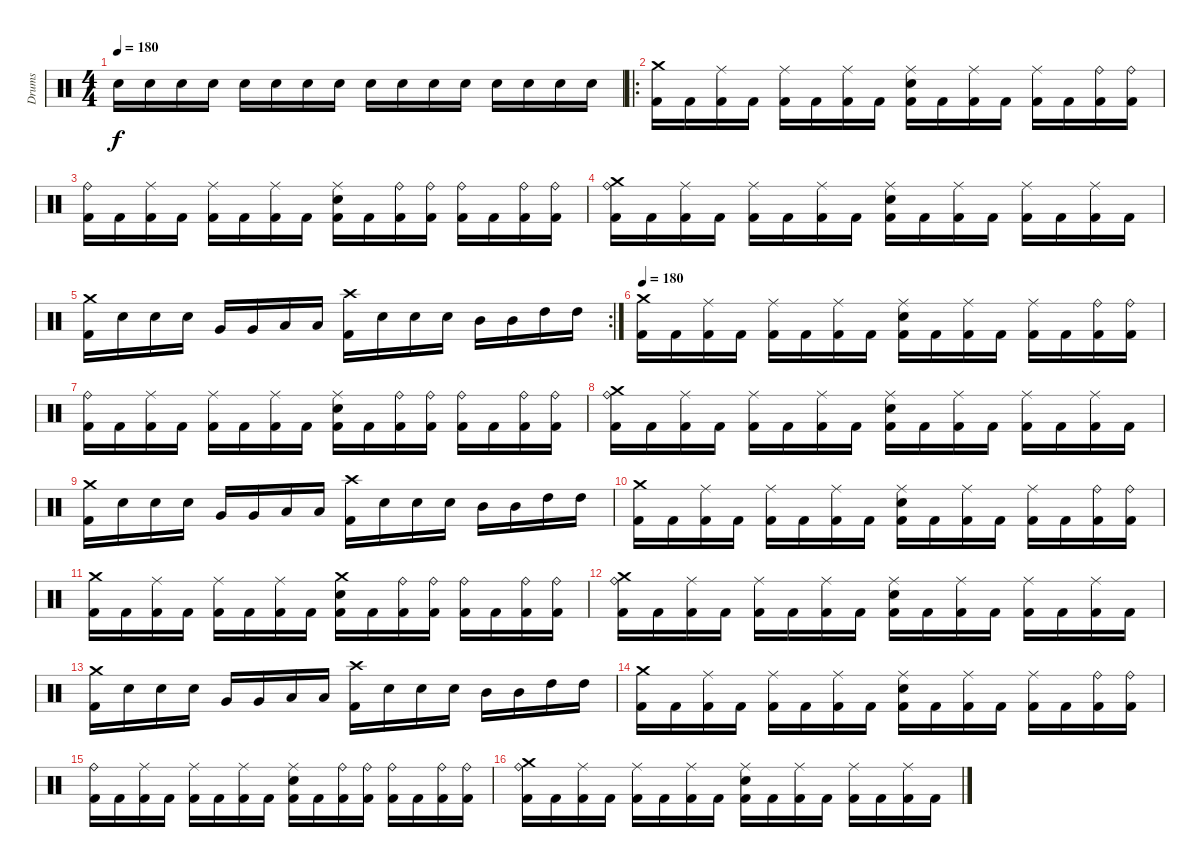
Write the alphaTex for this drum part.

\track ("Drums" "Drums") {instrument percussion}
\staff {score}
\articulation defaults
\ts (4 4)
\tempo 180
\clef neutral
\ks c "Electric Snare (hit)"{x}.16{dy f volume 0} "Electric Snare (hit)".16{volume 13} "Electric Snare (hit)".16 "Electric Snare (hit)".16 "Electric Snare (hit)".16 "Electric Snare (hit)".16 "Electric Snare (hit)".16 "Electric Snare (hit)".16 "Electric Snare (hit)".16 "Electric Snare (hit)".16 "Electric Snare (hit)".16 "Electric Snare (hit)".16 "Electric Snare (hit)".16 "Electric Snare (hit)".16 "Electric Snare (hit)".16 "Electric Snare (hit)".16
|
\ro
("Kick (hit) 2" "Crash medium (hit)").16 "Kick (hit) 2".16 ("Kick (hit) 2" "Ride (middle)").16 "Kick (hit) 2".16 ("Kick (hit) 2" "Ride (middle)").16 "Kick (hit) 2".16 ("Kick (hit) 2" "Ride (middle)").16 "Kick (hit) 2".16 ("Kick (hit) 2" "Electric Snare (hit)" "Ride (middle)").16 "Kick (hit) 2".16 ("Kick (hit) 2" "Ride (middle)").16 "Kick (hit) 2".16 ("Kick (hit) 2" "Ride (middle)").16 "Kick (hit) 2".16 ("Kick (hit) 2" "Ride (bell)").16 ("Kick (hit) 2" "Ride (bell)").16 |
("Kick (hit) 2" "Ride (bell)").16 "Kick (hit) 2".16 ("Kick (hit) 2" "Ride (middle)").16 "Kick (hit) 2".16 ("Kick (hit) 2" "Ride (middle)").16 "Kick (hit) 2".16 ("Kick (hit) 2" "Ride (middle)").16 "Kick (hit) 2".16 ("Kick (hit) 2" "Electric Snare (hit)" "Ride (middle)").16 "Kick (hit) 2".16 ("Kick (hit) 2" "Ride (bell)").16 ("Kick (hit) 2" "Ride (bell)").16 ("Kick (hit) 2" "Ride (bell)").16 "Kick (hit) 2".16 ("Kick (hit) 2" "Ride (bell)").16 ("Kick (hit) 2" "Ride (bell)").16 |
("Kick (hit) 2" "Ride (bell)" "Crash medium (hit)").16 "Kick (hit) 2".16 ("Kick (hit) 2" "Ride (middle)").16 "Kick (hit) 2".16 ("Kick (hit) 2" "Ride (middle)").16 "Kick (hit) 2".16 ("Kick (hit) 2" "Ride (middle)").16 "Kick (hit) 2".16 ("Kick (hit) 2" "Electric Snare (hit)" "Ride (middle)").16 "Kick (hit) 2".16 ("Kick (hit) 2" "Ride (middle)").16 "Kick (hit) 2".16 ("Kick (hit) 2" "Ride (middle)").16 "Kick (hit) 2".16 ("Kick (hit) 2" "Ride (middle)").16 "Kick (hit) 2".16 |
\rc 2
("Kick (hit) 2" "Crash medium (hit)").16 "Electric Snare (hit)".16 "Electric Snare (hit)".16 "Electric Snare (hit)".16 "Very Low Tom (hit)".16 "Very Low Tom (hit)".16 "Low Tom (hit)".16 "Low Tom (hit)".16 ("Kick (hit) 2" "Crash high (hit)").16 "Electric Snare (hit)".16 "Electric Snare (hit)".16 "Electric Snare (hit)".16 "Mid Tom (hit)".16 "Mid Tom (hit)".16 "High Tom (hit)".16 "High Tom (hit)".16 |
\tempo 180
("Kick (hit) 2" "Crash medium (hit)").16 "Kick (hit) 2".16 ("Kick (hit) 2" "Ride (middle)").16 "Kick (hit) 2".16 ("Kick (hit) 2" "Ride (middle)").16 "Kick (hit) 2".16 ("Kick (hit) 2" "Ride (middle)").16 "Kick (hit) 2".16 ("Kick (hit) 2" "Electric Snare (hit)" "Ride (middle)").16 "Kick (hit) 2".16 ("Kick (hit) 2" "Ride (middle)").16 "Kick (hit) 2".16 ("Kick (hit) 2" "Ride (middle)").16 "Kick (hit) 2".16 ("Kick (hit) 2" "Ride (bell)").16 ("Kick (hit) 2" "Ride (bell)").16 |
("Kick (hit) 2" "Ride (bell)").16 "Kick (hit) 2".16 ("Kick (hit) 2" "Ride (middle)").16 "Kick (hit) 2".16 ("Kick (hit) 2" "Ride (middle)").16 "Kick (hit) 2".16 ("Kick (hit) 2" "Ride (middle)").16 "Kick (hit) 2".16 ("Kick (hit) 2" "Electric Snare (hit)" "Ride (middle)").16 "Kick (hit) 2".16 ("Kick (hit) 2" "Ride (bell)").16 ("Kick (hit) 2" "Ride (bell)").16 ("Kick (hit) 2" "Ride (bell)").16 "Kick (hit) 2".16 ("Kick (hit) 2" "Ride (bell)").16 ("Kick (hit) 2" "Ride (bell)").16 |
("Kick (hit) 2" "Ride (bell)" "Crash medium (hit)").16 "Kick (hit) 2".16 ("Kick (hit) 2" "Ride (middle)").16 "Kick (hit) 2".16 ("Kick (hit) 2" "Ride (middle)").16 "Kick (hit) 2".16 ("Kick (hit) 2" "Ride (middle)").16 "Kick (hit) 2".16 ("Kick (hit) 2" "Electric Snare (hit)" "Ride (middle)").16 "Kick (hit) 2".16 ("Kick (hit) 2" "Ride (middle)").16 "Kick (hit) 2".16 ("Kick (hit) 2" "Ride (middle)").16 "Kick (hit) 2".16 ("Kick (hit) 2" "Ride (middle)").16 "Kick (hit) 2".16 |
("Kick (hit) 2" "Crash medium (hit)").16 "Electric Snare (hit)".16 "Electric Snare (hit)".16 "Electric Snare (hit)".16 "Very Low Tom (hit)".16 "Very Low Tom (hit)".16 "Low Tom (hit)".16 "Low Tom (hit)".16 ("Kick (hit) 2" "Crash high (hit)").16 "Electric Snare (hit)".16 "Electric Snare (hit)".16 "Electric Snare (hit)".16 "Mid Tom (hit)".16 "Mid Tom (hit)".16 "High Tom (hit)".16 "High Tom (hit)".16 |
("Kick (hit) 2" "Crash medium (hit)").16 "Kick (hit) 2".16 ("Kick (hit) 2" "Ride (middle)").16 "Kick (hit) 2".16 ("Kick (hit) 2" "Ride (middle)").16 "Kick (hit) 2".16 ("Kick (hit) 2" "Ride (middle)").16 "Kick (hit) 2".16 ("Kick (hit) 2" "Electric Snare (hit)" "Ride (middle)").16 "Kick (hit) 2".16 ("Kick (hit) 2" "Ride (middle)").16 "Kick (hit) 2".16 ("Kick (hit) 2" "Ride (middle)").16 "Kick (hit) 2".16 ("Kick (hit) 2" "Ride (bell)").16 ("Kick (hit) 2" "Ride (bell)").16 |
("Kick (hit) 2" "Crash medium (hit)").16 "Kick (hit) 2".16 ("Kick (hit) 2" "Ride (middle)").16 "Kick (hit) 2".16 ("Kick (hit) 2" "Ride (middle)").16 "Kick (hit) 2".16 ("Kick (hit) 2" "Ride (middle)").16 "Kick (hit) 2".16 ("Kick (hit) 2" "Electric Snare (hit)" "Crash medium (hit)").16 "Kick (hit) 2".16 ("Kick (hit) 2" "Ride (bell)").16 ("Kick (hit) 2" "Ride (bell)").16 ("Kick (hit) 2" "Ride (bell)").16 "Kick (hit) 2".16 ("Kick (hit) 2" "Ride (bell)").16 ("Kick (hit) 2" "Ride (bell)").16 |
("Kick (hit) 2" "Ride (bell)" "Crash medium (hit)").16 "Kick (hit) 2".16 ("Kick (hit) 2" "Ride (middle)").16 "Kick (hit) 2".16 ("Kick (hit) 2" "Ride (middle)").16 "Kick (hit) 2".16 ("Kick (hit) 2" "Ride (middle)").16 "Kick (hit) 2".16 ("Kick (hit) 2" "Electric Snare (hit)" "Ride (middle)").16 "Kick (hit) 2".16 ("Kick (hit) 2" "Ride (middle)").16 "Kick (hit) 2".16 ("Kick (hit) 2" "Ride (middle)").16 "Kick (hit) 2".16 ("Kick (hit) 2" "Ride (middle)").16 "Kick (hit) 2".16 |
("Kick (hit) 2" "Crash medium (hit)").16 "Electric Snare (hit)".16 "Electric Snare (hit)".16 "Electric Snare (hit)".16 "Very Low Tom (hit)".16 "Very Low Tom (hit)".16 "Low Tom (hit)".16 "Low Tom (hit)".16 ("Kick (hit) 2" "Crash high (hit)").16 "Electric Snare (hit)".16 "Electric Snare (hit)".16 "Electric Snare (hit)".16 "Mid Tom (hit)".16 "Mid Tom (hit)".16 "High Tom (hit)".16 "High Tom (hit)".16 |
("Kick (hit) 2" "Crash medium (hit)").16 "Kick (hit) 2".16 ("Kick (hit) 2" "Ride (middle)").16 "Kick (hit) 2".16 ("Kick (hit) 2" "Ride (middle)").16 "Kick (hit) 2".16 ("Kick (hit) 2" "Ride (middle)").16 "Kick (hit) 2".16 ("Kick (hit) 2" "Electric Snare (hit)" "Ride (middle)").16 "Kick (hit) 2".16 ("Kick (hit) 2" "Ride (middle)").16 "Kick (hit) 2".16 ("Kick (hit) 2" "Ride (middle)").16 "Kick (hit) 2".16 ("Kick (hit) 2" "Ride (bell)").16 ("Kick (hit) 2" "Ride (bell)").16 |
("Kick (hit) 2" "Ride (bell)").16 "Kick (hit) 2".16 ("Kick (hit) 2" "Ride (middle)").16 "Kick (hit) 2".16 ("Kick (hit) 2" "Ride (middle)").16 "Kick (hit) 2".16 ("Kick (hit) 2" "Ride (middle)").16 "Kick (hit) 2".16 ("Kick (hit) 2" "Electric Snare (hit)" "Ride (middle)").16 "Kick (hit) 2".16 ("Kick (hit) 2" "Ride (bell)").16 ("Kick (hit) 2" "Ride (bell)").16 ("Kick (hit) 2" "Ride (bell)").16 "Kick (hit) 2".16 ("Kick (hit) 2" "Ride (bell)").16 ("Kick (hit) 2" "Ride (bell)").16 |
("Kick (hit) 2" "Ride (bell)" "Crash medium (hit)").16 "Kick (hit) 2".16 ("Kick (hit) 2" "Ride (middle)").16 "Kick (hit) 2".16 ("Kick (hit) 2" "Ride (middle)").16 "Kick (hit) 2".16 ("Kick (hit) 2" "Ride (middle)").16 "Kick (hit) 2".16 ("Kick (hit) 2" "Electric Snare (hit)" "Ride (middle)").16 "Kick (hit) 2".16 ("Kick (hit) 2" "Ride (middle)").16 "Kick (hit) 2".16 ("Kick (hit) 2" "Ride (middle)").16 "Kick (hit) 2".16 ("Kick (hit) 2" "Ride (middle)").16 "Kick (hit) 2".16
